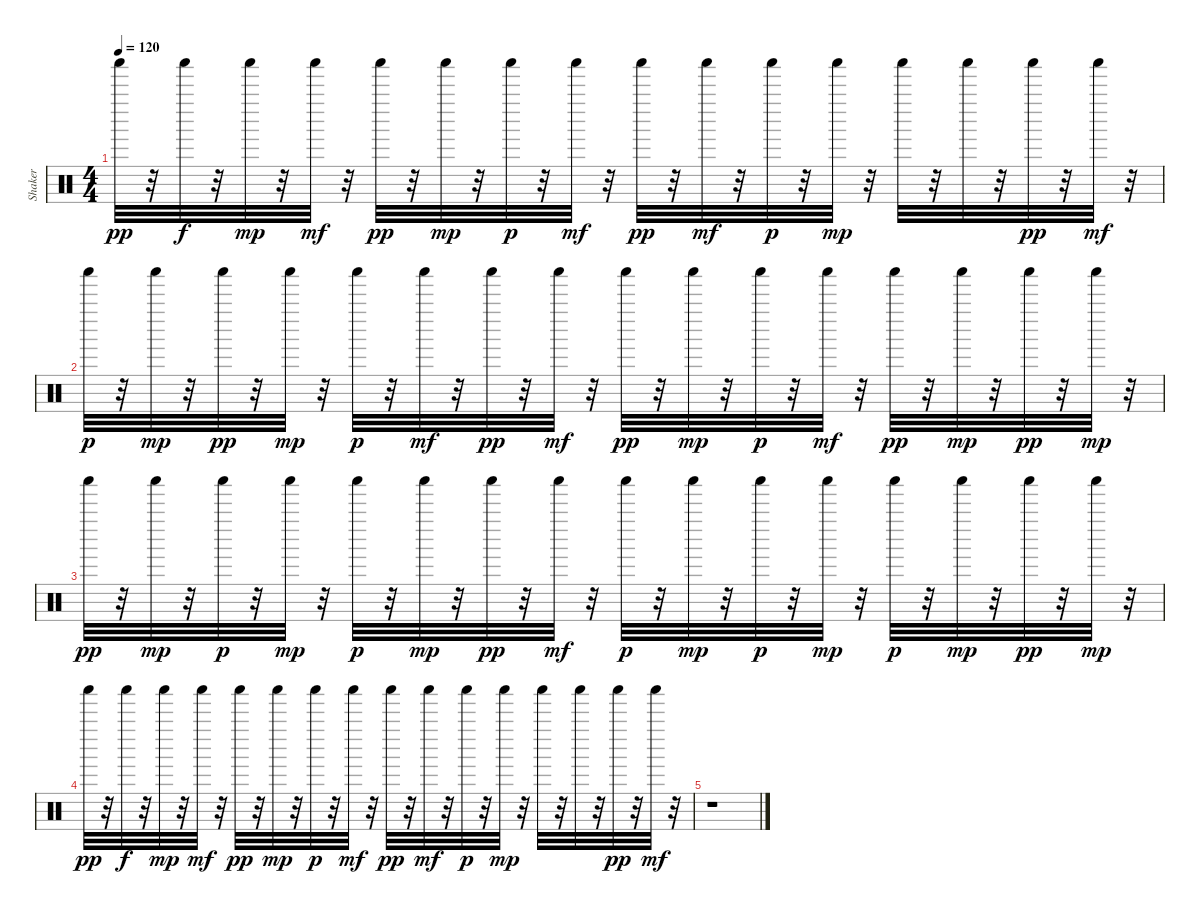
\track ("Shaker" "Shaker") {instrument percussion}
\staff {score}
\articulation defaults
\ts (4 4)
\tempo 120
\clef neutral
\ks c "Shaker (hit)".32{dy pp}
r.32 "Shaker (hit)".32{dy f} r.32 "Shaker (hit)".32{dy mp} r.32 "Shaker (hit)".32{dy mf} r.32 "Shaker (hit)".32{dy pp} r.32 "Shaker (hit)".32{dy mp} r.32 "Shaker (hit)".32{dy p} r.32 "Shaker (hit)".32{dy mf} r.32 "Shaker (hit)".32{dy pp} r.32 "Shaker (hit)".32{dy mf} r.32 "Shaker (hit)".32{dy p} r.32 "Shaker (hit)".32{dy mp} r.32 "Shaker (hit)".32 r.32 "Shaker (hit)".32 r.32 "Shaker (hit)".32{dy pp} r.32 "Shaker (hit)".32{dy mf} r.32 |
"Shaker (hit)".32{dy p} r.32 "Shaker (hit)".32{dy mp} r.32 "Shaker (hit)".32{dy pp} r.32 "Shaker (hit)".32{dy mp} r.32 "Shaker (hit)".32{dy p} r.32 "Shaker (hit)".32{dy mf} r.32 "Shaker (hit)".32{dy pp} r.32 "Shaker (hit)".32{dy mf} r.32 "Shaker (hit)".32{dy pp} r.32 "Shaker (hit)".32{dy mp} r.32 "Shaker (hit)".32{dy p} r.32 "Shaker (hit)".32{dy mf} r.32 "Shaker (hit)".32{dy pp} r.32 "Shaker (hit)".32{dy mp} r.32 "Shaker (hit)".32{dy pp} r.32 "Shaker (hit)".32{dy mp} r.32 |
"Shaker (hit)".32{dy pp} r.32 "Shaker (hit)".32{dy mp} r.32 "Shaker (hit)".32{dy p} r.32 "Shaker (hit)".32{dy mp} r.32 "Shaker (hit)".32{dy p} r.32 "Shaker (hit)".32{dy mp} r.32 "Shaker (hit)".32{dy pp} r.32 "Shaker (hit)".32{dy mf} r.32 "Shaker (hit)".32{dy p} r.32 "Shaker (hit)".32{dy mp} r.32 "Shaker (hit)".32{dy p} r.32 "Shaker (hit)".32{dy mp} r.32 "Shaker (hit)".32{dy p} r.32 "Shaker (hit)".32{dy mp} r.32 "Shaker (hit)".32{dy pp} r.32 "Shaker (hit)".32{dy mp} r.32 |
"Shaker (hit)".32{dy pp} r.32 "Shaker (hit)".32{dy f} r.32 "Shaker (hit)".32{dy mp} r.32 "Shaker (hit)".32{dy mf} r.32 "Shaker (hit)".32{dy pp} r.32 "Shaker (hit)".32{dy mp} r.32 "Shaker (hit)".32{dy p} r.32 "Shaker (hit)".32{dy mf} r.32 "Shaker (hit)".32{dy pp} r.32 "Shaker (hit)".32{dy mf} r.32 "Shaker (hit)".32{dy p} r.32 "Shaker (hit)".32{dy mp} r.32 "Shaker (hit)".32 r.32 "Shaker (hit)".32 r.32 "Shaker (hit)".32{dy pp} r.32 "Shaker (hit)".32{dy mf} r.32 |
r.1
